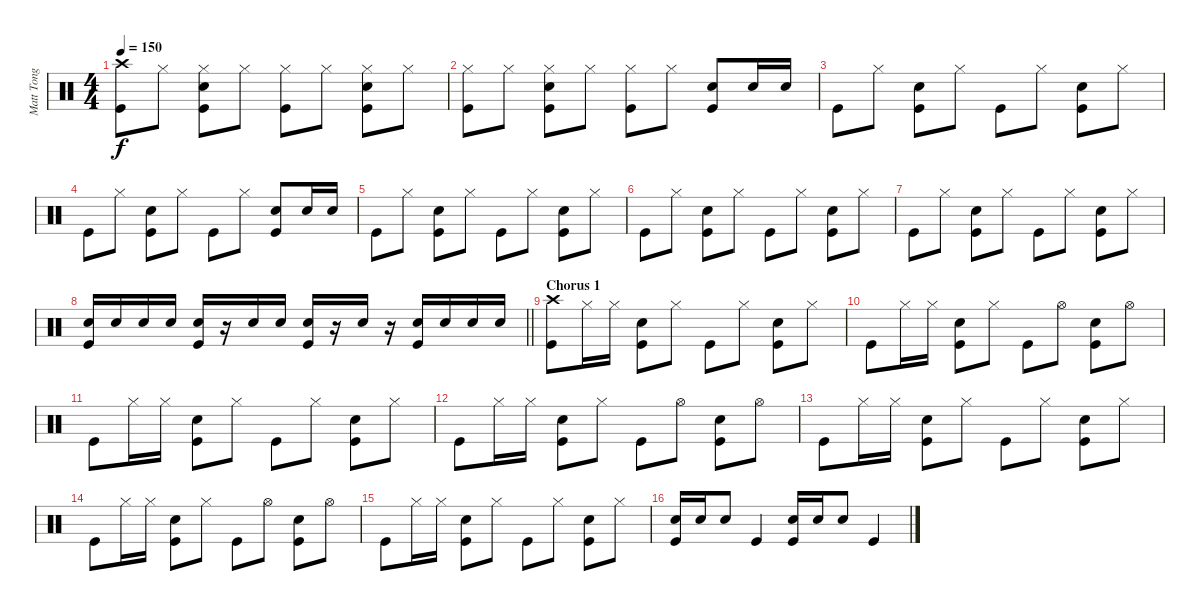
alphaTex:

\track ("Matt Tong (Drums)" "Matt Tong ") {instrument percussion}
\staff {score}
\articulation defaults
\ts (4 4)
\tempo 150
\clef neutral
\ks c
("Crash high (hit)" "Kick (hit)").8{dy f} "Hi-Hat (closed)".8 ("Hi-Hat (closed)" "Electric Snare (hit)" "Kick (hit)").8 "Hi-Hat (closed)".8 ("Hi-Hat (closed)" "Kick (hit)").8 "Hi-Hat (closed)".8 ("Hi-Hat (closed)" "Electric Snare (hit)" "Kick (hit)").8 "Hi-Hat (closed)".8 |
("Hi-Hat (closed)" "Kick (hit)").8 "Hi-Hat (closed)".8 ("Hi-Hat (closed)" "Electric Snare (hit)" "Kick (hit)").8 "Hi-Hat (closed)".8 ("Hi-Hat (closed)" "Kick (hit)").8 "Hi-Hat (closed)".8 ("Electric Snare (hit)" "Kick (hit)").8 "Electric Snare (hit)".16 "Electric Snare (hit)".16 |
"Kick (hit)".8 "Hi-Hat (closed)".8 ("Electric Snare (hit)" "Kick (hit)").8 "Hi-Hat (closed)".8 "Kick (hit)".8 "Hi-Hat (closed)".8 ("Electric Snare (hit)" "Kick (hit)").8 "Hi-Hat (closed)".8 |
"Kick (hit)".8 "Hi-Hat (closed)".8 ("Electric Snare (hit)" "Kick (hit)").8 "Hi-Hat (closed)".8 "Kick (hit)".8 "Hi-Hat (closed)".8 ("Electric Snare (hit)" "Kick (hit)").8 "Electric Snare (hit)".16 "Electric Snare (hit)".16 |
"Kick (hit)".8 "Hi-Hat (closed)".8 ("Electric Snare (hit)" "Kick (hit)").8 "Hi-Hat (closed)".8 "Kick (hit)".8 "Hi-Hat (closed)".8 ("Electric Snare (hit)" "Kick (hit)").8 "Hi-Hat (closed)".8 |
"Kick (hit)".8 "Hi-Hat (closed)".8 ("Electric Snare (hit)" "Kick (hit)").8 "Hi-Hat (closed)".8 "Kick (hit)".8 "Hi-Hat (closed)".8 ("Electric Snare (hit)" "Kick (hit)").8 "Hi-Hat (closed)".8 |
"Kick (hit)".8 "Hi-Hat (closed)".8 ("Electric Snare (hit)" "Kick (hit)").8 "Hi-Hat (closed)".8 "Kick (hit)".8 "Hi-Hat (closed)".8 ("Electric Snare (hit)" "Kick (hit)").8 "Hi-Hat (closed)".8 |
\barLineRight lightlight
("Electric Snare (hit)" "Kick (hit)").16 "Electric Snare (hit)".16 "Electric Snare (hit)".16 "Electric Snare (hit)".16 ("Electric Snare (hit)" "Kick (hit)").16 r.16 "Electric Snare (hit)".16 "Electric Snare (hit)".16 ("Electric Snare (hit)" "Kick (hit)").16 r.16 "Electric Snare (hit)".16 r.16 ("Electric Snare (hit)" "Kick (hit)").16 "Electric Snare (hit)".16 "Electric Snare (hit)".16 "Electric Snare (hit)".16 |
\section ("" "Chorus 1")
("Crash high (hit)" "Kick (hit)").8 "Hi-Hat (closed)".16 "Hi-Hat (closed)".16 ("Electric Snare (hit)" "Kick (hit)").8 "Hi-Hat (closed)".8 "Kick (hit)".8 "Hi-Hat (closed)".8 ("Electric Snare (hit)" "Kick (hit)").8 "Hi-Hat (closed)".8 |
"Kick (hit)".8 "Hi-Hat (closed)".16 "Hi-Hat (closed)".16 ("Electric Snare (hit)" "Kick (hit)").8 "Hi-Hat (closed)".8 "Kick (hit)".8 "Hi-Hat (open)".8 ("Electric Snare (hit)" "Kick (hit)").8 "Hi-Hat (open)".8 |
"Kick (hit)".8 "Hi-Hat (closed)".16 "Hi-Hat (closed)".16 ("Electric Snare (hit)" "Kick (hit)").8 "Hi-Hat (closed)".8 "Kick (hit)".8 "Hi-Hat (closed)".8 ("Electric Snare (hit)" "Kick (hit)").8 "Hi-Hat (closed)".8 |
"Kick (hit)".8 "Hi-Hat (closed)".16 "Hi-Hat (closed)".16 ("Electric Snare (hit)" "Kick (hit)").8 "Hi-Hat (closed)".8 "Kick (hit)".8 "Hi-Hat (open)".8 ("Electric Snare (hit)" "Kick (hit)").8 "Hi-Hat (open)".8 |
"Kick (hit)".8 "Hi-Hat (closed)".16 "Hi-Hat (closed)".16 ("Electric Snare (hit)" "Kick (hit)").8 "Hi-Hat (closed)".8 "Kick (hit)".8 "Hi-Hat (closed)".8 ("Electric Snare (hit)" "Kick (hit)").8 "Hi-Hat (closed)".8 |
"Kick (hit)".8 "Hi-Hat (closed)".16 "Hi-Hat (closed)".16 ("Electric Snare (hit)" "Kick (hit)").8 "Hi-Hat (closed)".8 "Kick (hit)".8 "Hi-Hat (open)".8 ("Electric Snare (hit)" "Kick (hit)").8 "Hi-Hat (open)".8 |
"Kick (hit)".8 "Hi-Hat (closed)".16 "Hi-Hat (closed)".16 ("Electric Snare (hit)" "Kick (hit)").8 "Hi-Hat (closed)".8 "Kick (hit)".8 "Hi-Hat (closed)".8 ("Electric Snare (hit)" "Kick (hit)").8 "Hi-Hat (closed)".8 |
("Electric Snare (hit)" "Kick (hit)").16 "Electric Snare (hit)".16 "Electric Snare (hit)".8 "Kick (hit)".4 ("Electric Snare (hit)" "Kick (hit)").16 "Electric Snare (hit)".16 "Electric Snare (hit)".8 "Kick (hit)".4
